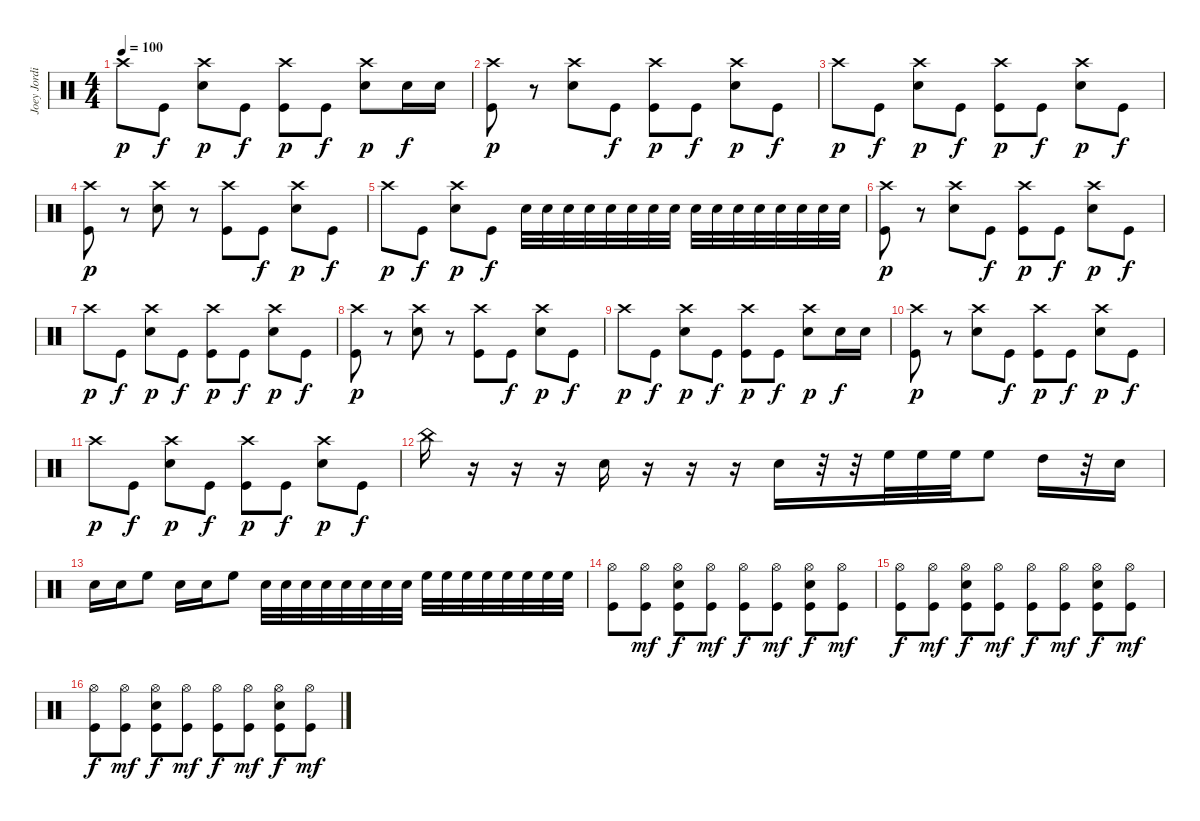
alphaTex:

\track ("Joey Jordison" "Joey Jordi") {instrument percussion}
\staff {score}
\articulation defaults
\ts (4 4)
\tempo 100
\clef neutral
\ks c "Crash high (hit)".8{dy p} "Kick (hit)".8{dy f}
("Snare (hit) 2" "Crash high (hit)").8{dy p} "Kick (hit)".8{dy f} ("Kick (hit)" "Crash high (hit)").8{dy p} "Kick (hit)".8{dy f} ("Snare (hit) 2" "Crash high (hit)").8{dy p} "Snare (hit) 2".16{dy f} "Snare (hit) 2".16 |
("Kick (hit)" "Crash high (hit)").8{dy p} r.8 ("Snare (hit) 2" "Crash high (hit)").8 "Kick (hit)".8{dy f} ("Kick (hit)" "Crash high (hit)").8{dy p} "Kick (hit)".8{dy f} ("Snare (hit) 2" "Crash high (hit)").8{dy p} "Kick (hit)".8{dy f} |
"Crash high (hit)".8{dy p} "Kick (hit)".8{dy f} ("Snare (hit) 2" "Crash high (hit)").8{dy p} "Kick (hit)".8{dy f} ("Kick (hit)" "Crash high (hit)").8{dy p} "Kick (hit)".8{dy f} ("Snare (hit) 2" "Crash high (hit)").8{dy p} "Kick (hit)".8{dy f} |
("Kick (hit)" "Crash high (hit)").8{dy p} r.8 ("Snare (hit) 2" "Crash high (hit)").8 r.8 ("Kick (hit)" "Crash high (hit)").8 "Kick (hit)".8{dy f} ("Snare (hit) 2" "Crash high (hit)").8{dy p} "Kick (hit)".8{dy f} |
"Crash high (hit)".8{dy p} "Kick (hit)".8{dy f} ("Snare (hit) 2" "Crash high (hit)").8{dy p} "Kick (hit)".8{dy f} "Snare (hit) 2".32 "Snare (hit) 2".32 "Snare (hit) 2".32 "Snare (hit) 2".32 "Snare (hit) 2".32 "Snare (hit) 2".32 "Snare (hit) 2".32 "Snare (hit) 2".32 "Snare (hit) 2".32 "Snare (hit) 2".32 "Snare (hit) 2".32 "Snare (hit) 2".32 "Snare (hit) 2".32 "Snare (hit) 2".32 "Snare (hit) 2".32 "Snare (hit) 2".32 |
("Kick (hit)" "Crash high (hit)").8{dy p} r.8 ("Snare (hit) 2" "Crash high (hit)").8 "Kick (hit)".8{dy f} ("Kick (hit)" "Crash high (hit)").8{dy p} "Kick (hit)".8{dy f} ("Snare (hit) 2" "Crash high (hit)").8{dy p} "Kick (hit)".8{dy f} |
"Crash high (hit)".8{dy p} "Kick (hit)".8{dy f} ("Snare (hit) 2" "Crash high (hit)").8{dy p} "Kick (hit)".8{dy f} ("Kick (hit)" "Crash high (hit)").8{dy p} "Kick (hit)".8{dy f} ("Snare (hit) 2" "Crash high (hit)").8{dy p} "Kick (hit)".8{dy f} |
("Kick (hit)" "Crash high (hit)").8{dy p} r.8 ("Snare (hit) 2" "Crash high (hit)").8 r.8 ("Kick (hit)" "Crash high (hit)").8 "Kick (hit)".8{dy f} ("Snare (hit) 2" "Crash high (hit)").8{dy p} "Kick (hit)".8{dy f} |
"Crash high (hit)".8{dy p} "Kick (hit)".8{dy f} ("Snare (hit) 2" "Crash high (hit)").8{dy p} "Kick (hit)".8{dy f} ("Kick (hit)" "Crash high (hit)").8{dy p} "Kick (hit)".8{dy f} ("Snare (hit) 2" "Crash high (hit)").8{dy p} "Snare (hit) 2".16{dy f} "Snare (hit) 2".16 |
("Kick (hit)" "Crash high (hit)").8{dy p} r.8 ("Snare (hit) 2" "Crash high (hit)").8 "Kick (hit)".8{dy f} ("Kick (hit)" "Crash high (hit)").8{dy p} "Kick (hit)".8{dy f} ("Snare (hit) 2" "Crash high (hit)").8{dy p} "Kick (hit)".8{dy f} |
"Crash high (hit)".8{dy p} "Kick (hit)".8{dy f} ("Snare (hit) 2" "Crash high (hit)").8{dy p} "Kick (hit)".8{dy f} ("Kick (hit)" "Crash high (hit)").8{dy p} "Kick (hit)".8{dy f} ("Snare (hit) 2" "Crash high (hit)").8{dy p} "Kick (hit)".8{dy f} |
"China (hit)".16 r.16 r.16 r.16 "Snare (hit) 2".16 r.16 r.16 r.16 "Snare (hit) 2".16 r.32 r.32 "High Floor Tom (hit)".32 "High Floor Tom (hit)".32 "High Floor Tom (hit)".32 "High Floor Tom (hit)".8 "High Tom (hit)".16 r.32 "Snare (hit) 2".16 |
"Snare (hit) 2".16 "Snare (hit) 2".16 "High Floor Tom (hit)".8 "Snare (hit) 2".16 "Snare (hit) 2".16 "High Floor Tom (hit)".8 "Snare (hit) 2".32 "Snare (hit) 2".32 "Snare (hit) 2".32 "Snare (hit) 2".32 "Snare (hit) 2".32 "Snare (hit) 2".32 "Snare (hit) 2".32 "Snare (hit) 2".32 "High Floor Tom (hit)".32 "High Floor Tom (hit)".32 "High Floor Tom (hit)".32 "High Floor Tom (hit)".32 "High Floor Tom (hit)".32 "High Floor Tom (hit)".32 "High Floor Tom (hit)".32 "High Floor Tom (hit)".32 |
("Hi-Hat (open)" "Kick (hit)").8 ("Hi-Hat (open)" "Kick (hit)").8{dy mf} ("Hi-Hat (open)" "Kick (hit)" "Snare (hit) 2").8{dy f} ("Hi-Hat (open)" "Kick (hit)").8{dy mf} ("Hi-Hat (open)" "Kick (hit)").8{dy f} ("Hi-Hat (open)" "Kick (hit)").8{dy mf} ("Hi-Hat (open)" "Kick (hit)" "Snare (hit) 2").8{dy f} ("Hi-Hat (open)" "Kick (hit)").8{dy mf} |
("Hi-Hat (open)" "Kick (hit)").8{dy f} ("Hi-Hat (open)" "Kick (hit)").8{dy mf} ("Hi-Hat (open)" "Kick (hit)" "Snare (hit) 2").8{dy f} ("Hi-Hat (open)" "Kick (hit)").8{dy mf} ("Hi-Hat (open)" "Kick (hit)").8{dy f} ("Hi-Hat (open)" "Kick (hit)").8{dy mf} ("Hi-Hat (open)" "Kick (hit)" "Snare (hit) 2").8{dy f} ("Hi-Hat (open)" "Kick (hit)").8{dy mf} |
("Hi-Hat (open)" "Kick (hit)").8{dy f} ("Hi-Hat (open)" "Kick (hit)").8{dy mf} ("Hi-Hat (open)" "Kick (hit)" "Snare (hit) 2").8{dy f} ("Hi-Hat (open)" "Kick (hit)").8{dy mf} ("Hi-Hat (open)" "Kick (hit)").8{dy f} ("Hi-Hat (open)" "Kick (hit)").8{dy mf} ("Hi-Hat (open)" "Kick (hit)" "Snare (hit) 2").8{dy f} ("Hi-Hat (open)" "Kick (hit)").8{dy mf}
